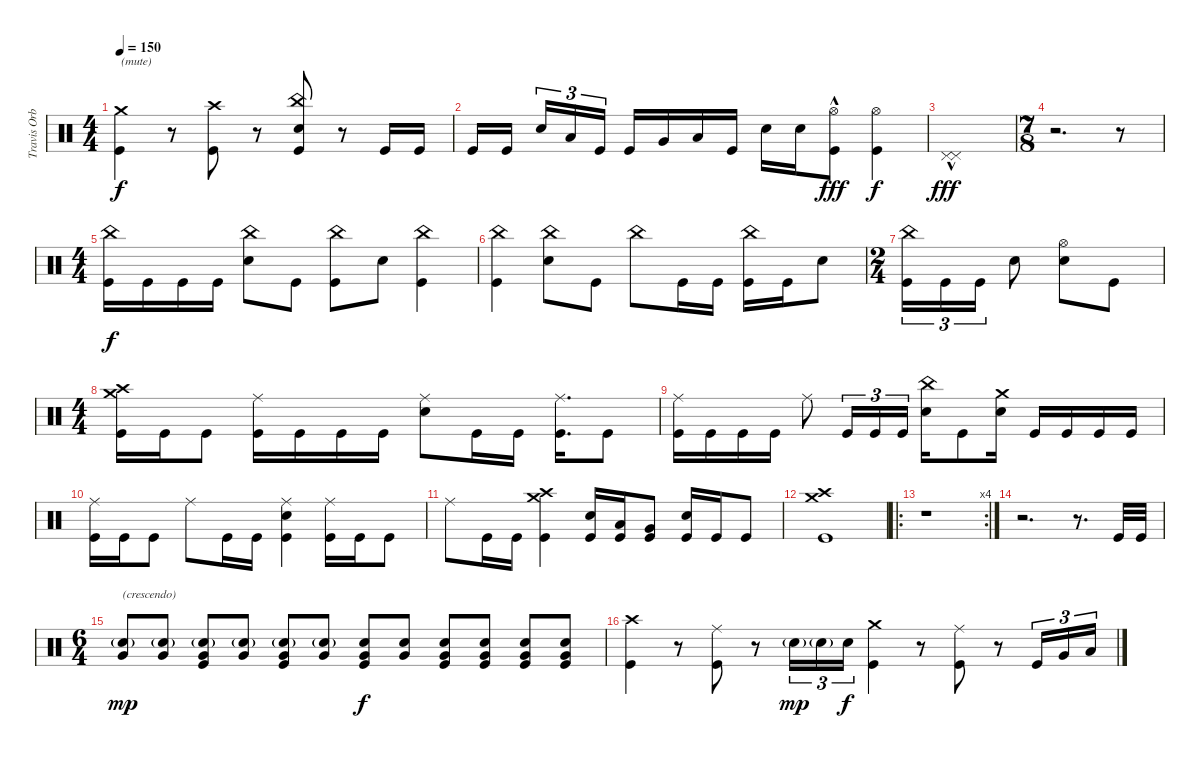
\track ("Travis Orbin" "Travis Orb") {instrument percussion}
\staff {score}
\articulation defaults
\ts (4 4)
\tempo 150
\clef neutral
\ks c
("Crash medium (hit)" "Kick (hit)").4{txt "(mute)" dy f} r.8 ("Crash high (hit)" "Kick (hit)").8 r.8 ("China (hit)" "Electric Snare (hit)" "Kick (hit)").8 r.8 "Kick (hit)".16 "Kick (hit)".16 |
"Kick (hit)".16 "Kick (hit)".16{beam splitsecondary} "Electric Snare (hit)".16{tu (3 2)} "Low Tom (hit)".16{tu (3 2)} "Kick (hit)".16{tu (3 2)} "Kick (hit)".16 "Very Low Tom (hit)".16 "Low Tom (hit)".16 "Kick (hit)".16 "Electric Snare (hit)".16 "Electric Snare (hit)".16 ("Hi-Hat (open)"{hac} "Kick (hit)").8{dy fff} ("Hi-Hat (open)" "Kick (hit)").4{dy f} |
("Pedal Hi-Hat (hit)" "Pedal Hi-Hat (hit)"{hac}).1{dy fff} |
\ts (7 8)
r.2{d} r.8 |
\ts (4 4)
("China (hit)" "Kick (hit)").16{dy f} "Kick (hit)".16 "Kick (hit)".16 "Kick (hit)".16 ("China (hit)" "Electric Snare (hit)").8 "Kick (hit)".8 ("China (hit)" "Kick (hit)").8 "Electric Snare (hit)".8 ("China (hit)" "Kick (hit)").4 |
("China (hit)" "Kick (hit)").4 ("China (hit)" "Electric Snare (hit)").8 "Kick (hit)".8 "China (hit)".8 "Kick (hit)".16 "Kick (hit)".16 ("China (hit)" "Kick (hit)").16 "Kick (hit)".16 "Electric Snare (hit)".8 |
\ts (2 4)
("China (hit)" "Kick (hit)").16{tu (3 2)} "Kick (hit)".16{tu (3 2)} "Kick (hit)".16{tu (3 2)} "Electric Snare (hit)".8 ("Hi-Hat (open)" "Electric Snare (hit)").8 "Kick (hit)".8 |
\ts (4 4)
("Crash high (hit)" "Crash medium (hit)" "Kick (hit)").16 "Kick (hit)".16 "Kick (hit)".8 ("Ride (middle)" "Kick (hit)").16 "Kick (hit)".16 "Kick (hit)".16 "Kick (hit)".16 ("Ride (middle)" "Electric Snare (hit)").8 "Kick (hit)".16 "Kick (hit)".16 ("Ride (middle)" "Kick (hit)").16{d} "Kick (hit)".8 |
("Ride (middle)" "Kick (hit)").16 "Kick (hit)".16 "Kick (hit)".16 "Kick (hit)".16 "Ride (middle)".8 "Kick (hit)".16{tu (3 2)} "Kick (hit)".16{tu (3 2)} "Kick (hit)".16{tu (3 2)} ("China (hit)" "Electric Snare (hit)").16 "Kick (hit)".8 ("Crash medium (hit)" "Electric Snare (hit)").16 "Kick (hit)".16 "Kick (hit)".16 "Kick (hit)".16 "Kick (hit)".16 |
("Ride (middle)" "Kick (hit)").16 "Kick (hit)".16 "Kick (hit)".8 "Ride (middle)".8 "Kick (hit)".16 "Kick (hit)".16 ("Ride (middle)" "Electric Snare (hit)" "Kick (hit)").4 ("Ride (middle)" "Kick (hit)").16 "Kick (hit)".16 "Kick (hit)".8 |
"Ride (middle)".8 "Kick (hit)".16 "Kick (hit)".16 ("Crash high (hit)" "Crash medium (hit)" "Kick (hit)").4 ("Electric Snare (hit)" "Kick (hit)").16 ("Low Tom (hit)" "Kick (hit)").16 ("Very Low Tom (hit)" "Kick (hit)").8 ("Electric Snare (hit)" "Kick (hit)").16 "Kick (hit)".16 "Kick (hit)".8 |
("Crash high (hit)" "Crash medium (hit)" "Kick (hit)").1 |
\ro
\rc 4
r.1 |
r.2{d} r.8{d} "Kick (hit)".32 "Kick (hit)".32 |
\ts (6 4)
("Electric Snare (hit)"{g} "Very Low Tom (hit)").8{txt "(crescendo)" dy mp} ("Electric Snare (hit)"{g} "Very Low Tom (hit)").8 ("Electric Snare (hit)"{g} "Very Low Tom (hit)" "Kick (hit)").8 ("Electric Snare (hit)"{g} "Very Low Tom (hit)").8 ("Electric Snare (hit)"{g} "Very Low Tom (hit)" "Kick (hit)").8 ("Electric Snare (hit)"{g} "Very Low Tom (hit)").8 ("Electric Snare (hit)" "Very Low Tom (hit)" "Kick (hit)").8{dy f} ("Electric Snare (hit)" "Very Low Tom (hit)").8 ("Electric Snare (hit)" "Very Low Tom (hit)" "Kick (hit)").8 ("Electric Snare (hit)" "Very Low Tom (hit)" "Kick (hit)").8 ("Electric Snare (hit)" "Very Low Tom (hit)" "Kick (hit)").8 ("Electric Snare (hit)" "Very Low Tom (hit)" "Kick (hit)").8 |
("Crash high (hit)" "Kick (hit)").4 r.8 ("Ride (middle)" "Kick (hit)").8 r.8 "Electric Snare (hit)"{g}.16{tu (3 2) dy mp} "Electric Snare (hit)"{g}.16{tu (3 2)} "Electric Snare (hit)".16{tu (3 2) dy f} ("Crash medium (hit)" "Kick (hit)").4 r.8 ("Ride (middle)" "Kick (hit)").8 r.8 "Kick (hit)".16{tu (3 2)} "Very Low Tom (hit)".16{tu (3 2)} "Low Tom (hit)".16{tu (3 2)}
